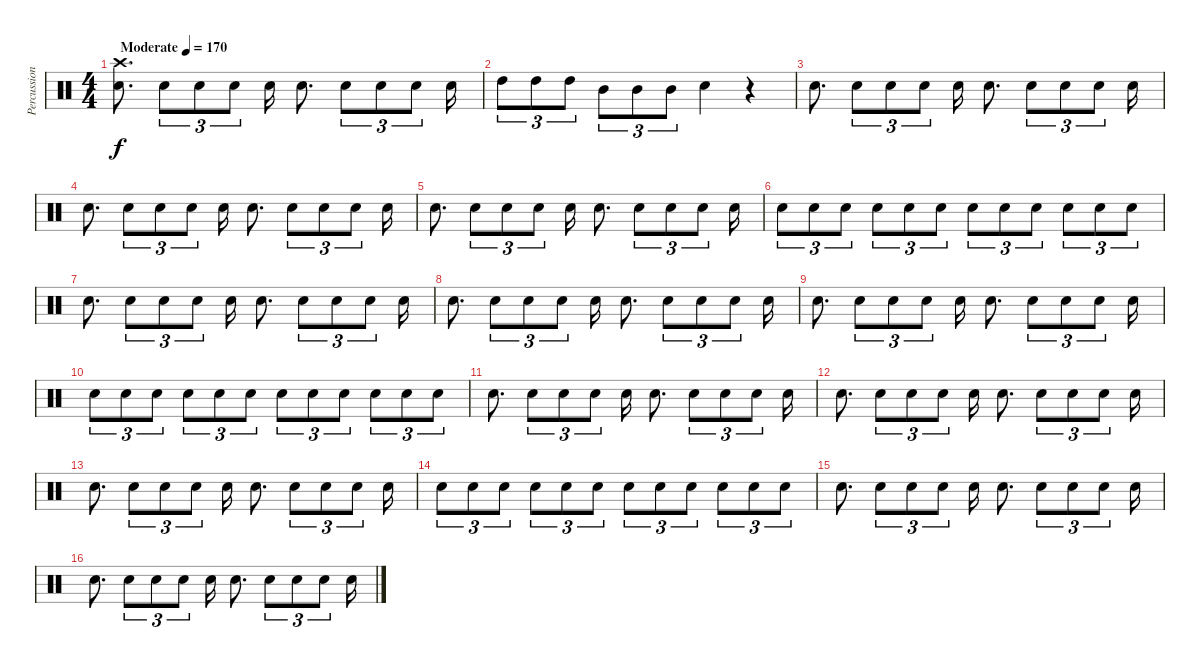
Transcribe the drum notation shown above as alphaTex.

\track ("Percussion" "Percussion") {instrument percussion}
\staff {score}
\articulation defaults
\ts (4 4)
\tempo (170 "Moderate")
\clef neutral
\ks c
("Crash high (hit)" "Electric Snare (hit)").8{d dy f} "Electric Snare (hit)".8{tu (3 2)} "Electric Snare (hit)".8{tu (3 2)} "Electric Snare (hit)".8{tu (3 2)} "Electric Snare (hit)".16 "Electric Snare (hit)".8{d} "Electric Snare (hit)".8{tu (3 2)} "Electric Snare (hit)".8{tu (3 2)} "Electric Snare (hit)".8{tu (3 2)} "Electric Snare (hit)".16 |
"High Tom (hit)".8{tu (3 2)} "High Tom (hit)".8{tu (3 2)} "High Tom (hit)".8{tu (3 2)} "Mid Tom (hit)".8{tu (3 2)} "Mid Tom (hit)".8{tu (3 2)} "Mid Tom (hit)".8{tu (3 2)} "Electric Snare (hit)".4 r.4 |
"Electric Snare (hit)".8{d} "Electric Snare (hit)".8{tu (3 2)} "Electric Snare (hit)".8{tu (3 2)} "Electric Snare (hit)".8{tu (3 2)} "Electric Snare (hit)".16 "Electric Snare (hit)".8{d} "Electric Snare (hit)".8{tu (3 2)} "Electric Snare (hit)".8{tu (3 2)} "Electric Snare (hit)".8{tu (3 2)} "Electric Snare (hit)".16 |
"Electric Snare (hit)".8{d} "Electric Snare (hit)".8{tu (3 2)} "Electric Snare (hit)".8{tu (3 2)} "Electric Snare (hit)".8{tu (3 2)} "Electric Snare (hit)".16 "Electric Snare (hit)".8{d} "Electric Snare (hit)".8{tu (3 2)} "Electric Snare (hit)".8{tu (3 2)} "Electric Snare (hit)".8{tu (3 2)} "Electric Snare (hit)".16 |
"Electric Snare (hit)".8{d} "Electric Snare (hit)".8{tu (3 2)} "Electric Snare (hit)".8{tu (3 2)} "Electric Snare (hit)".8{tu (3 2)} "Electric Snare (hit)".16 "Electric Snare (hit)".8{d} "Electric Snare (hit)".8{tu (3 2)} "Electric Snare (hit)".8{tu (3 2)} "Electric Snare (hit)".8{tu (3 2)} "Electric Snare (hit)".16 |
"Electric Snare (hit)".8{tu (3 2)} "Electric Snare (hit)".8{tu (3 2)} "Electric Snare (hit)".8{tu (3 2)} "Electric Snare (hit)".8{tu (3 2)} "Electric Snare (hit)".8{tu (3 2)} "Electric Snare (hit)".8{tu (3 2)} "Electric Snare (hit)".8{tu (3 2)} "Electric Snare (hit)".8{tu (3 2)} "Electric Snare (hit)".8{tu (3 2)} "Electric Snare (hit)".8{tu (3 2)} "Electric Snare (hit)".8{tu (3 2)} "Electric Snare (hit)".8{tu (3 2)} |
"Electric Snare (hit)".8{d} "Electric Snare (hit)".8{tu (3 2)} "Electric Snare (hit)".8{tu (3 2)} "Electric Snare (hit)".8{tu (3 2)} "Electric Snare (hit)".16 "Electric Snare (hit)".8{d} "Electric Snare (hit)".8{tu (3 2)} "Electric Snare (hit)".8{tu (3 2)} "Electric Snare (hit)".8{tu (3 2)} "Electric Snare (hit)".16 |
"Electric Snare (hit)".8{d} "Electric Snare (hit)".8{tu (3 2)} "Electric Snare (hit)".8{tu (3 2)} "Electric Snare (hit)".8{tu (3 2)} "Electric Snare (hit)".16 "Electric Snare (hit)".8{d} "Electric Snare (hit)".8{tu (3 2)} "Electric Snare (hit)".8{tu (3 2)} "Electric Snare (hit)".8{tu (3 2)} "Electric Snare (hit)".16 |
"Electric Snare (hit)".8{d} "Electric Snare (hit)".8{tu (3 2)} "Electric Snare (hit)".8{tu (3 2)} "Electric Snare (hit)".8{tu (3 2)} "Electric Snare (hit)".16 "Electric Snare (hit)".8{d} "Electric Snare (hit)".8{tu (3 2)} "Electric Snare (hit)".8{tu (3 2)} "Electric Snare (hit)".8{tu (3 2)} "Electric Snare (hit)".16 |
"Electric Snare (hit)".8{tu (3 2)} "Electric Snare (hit)".8{tu (3 2)} "Electric Snare (hit)".8{tu (3 2)} "Electric Snare (hit)".8{tu (3 2)} "Electric Snare (hit)".8{tu (3 2)} "Electric Snare (hit)".8{tu (3 2)} "Electric Snare (hit)".8{tu (3 2)} "Electric Snare (hit)".8{tu (3 2)} "Electric Snare (hit)".8{tu (3 2)} "Electric Snare (hit)".8{tu (3 2)} "Electric Snare (hit)".8{tu (3 2)} "Electric Snare (hit)".8{tu (3 2)} |
"Electric Snare (hit)".8{d} "Electric Snare (hit)".8{tu (3 2)} "Electric Snare (hit)".8{tu (3 2)} "Electric Snare (hit)".8{tu (3 2)} "Electric Snare (hit)".16 "Electric Snare (hit)".8{d} "Electric Snare (hit)".8{tu (3 2)} "Electric Snare (hit)".8{tu (3 2)} "Electric Snare (hit)".8{tu (3 2)} "Electric Snare (hit)".16 |
"Electric Snare (hit)".8{d} "Electric Snare (hit)".8{tu (3 2)} "Electric Snare (hit)".8{tu (3 2)} "Electric Snare (hit)".8{tu (3 2)} "Electric Snare (hit)".16 "Electric Snare (hit)".8{d} "Electric Snare (hit)".8{tu (3 2)} "Electric Snare (hit)".8{tu (3 2)} "Electric Snare (hit)".8{tu (3 2)} "Electric Snare (hit)".16 |
"Electric Snare (hit)".8{d} "Electric Snare (hit)".8{tu (3 2)} "Electric Snare (hit)".8{tu (3 2)} "Electric Snare (hit)".8{tu (3 2)} "Electric Snare (hit)".16 "Electric Snare (hit)".8{d} "Electric Snare (hit)".8{tu (3 2)} "Electric Snare (hit)".8{tu (3 2)} "Electric Snare (hit)".8{tu (3 2)} "Electric Snare (hit)".16 |
"Electric Snare (hit)".8{tu (3 2)} "Electric Snare (hit)".8{tu (3 2)} "Electric Snare (hit)".8{tu (3 2)} "Electric Snare (hit)".8{tu (3 2)} "Electric Snare (hit)".8{tu (3 2)} "Electric Snare (hit)".8{tu (3 2)} "Electric Snare (hit)".8{tu (3 2)} "Electric Snare (hit)".8{tu (3 2)} "Electric Snare (hit)".8{tu (3 2)} "Electric Snare (hit)".8{tu (3 2)} "Electric Snare (hit)".8{tu (3 2)} "Electric Snare (hit)".8{tu (3 2)} |
"Electric Snare (hit)".8{d} "Electric Snare (hit)".8{tu (3 2)} "Electric Snare (hit)".8{tu (3 2)} "Electric Snare (hit)".8{tu (3 2)} "Electric Snare (hit)".16 "Electric Snare (hit)".8{d} "Electric Snare (hit)".8{tu (3 2)} "Electric Snare (hit)".8{tu (3 2)} "Electric Snare (hit)".8{tu (3 2)} "Electric Snare (hit)".16 |
"Electric Snare (hit)".8{d} "Electric Snare (hit)".8{tu (3 2)} "Electric Snare (hit)".8{tu (3 2)} "Electric Snare (hit)".8{tu (3 2)} "Electric Snare (hit)".16 "Electric Snare (hit)".8{d} "Electric Snare (hit)".8{tu (3 2)} "Electric Snare (hit)".8{tu (3 2)} "Electric Snare (hit)".8{tu (3 2)} "Electric Snare (hit)".16
